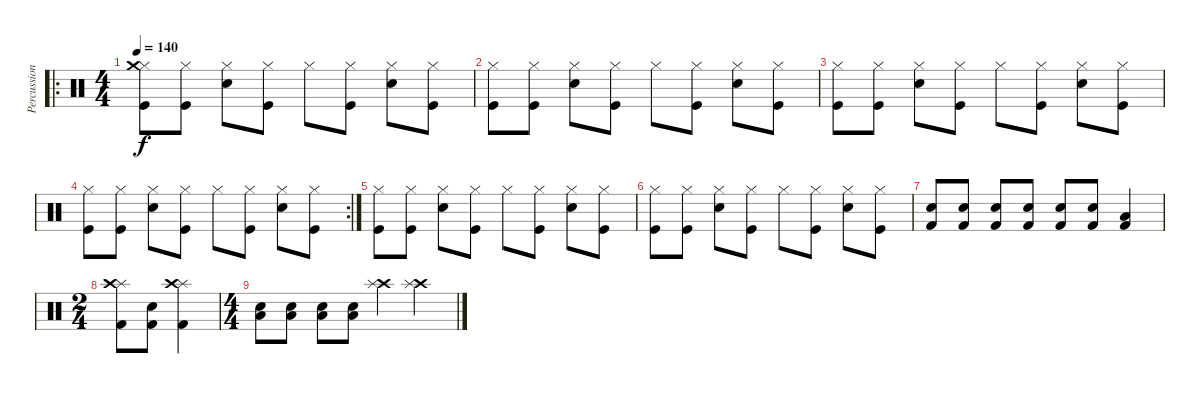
\track ("Percussion" "Percussion") {instrument percussion}
\staff {score}
\articulation defaults
\ro
\ts (4 4)
\tempo 140
\clef neutral
\ks c
("Kick (hit)" "Hi-Hat (closed)" "Crash medium (hit)").8{dy f} ("Kick (hit)" "Hi-Hat (closed)").8 ("Electric Snare (hit)" "Hi-Hat (closed)").8 ("Kick (hit)" "Hi-Hat (closed)").8 "Hi-Hat (closed)".8 ("Kick (hit)" "Hi-Hat (closed)").8 ("Electric Snare (hit)" "Hi-Hat (closed)").8 ("Kick (hit)" "Hi-Hat (closed)").8 |
("Kick (hit)" "Hi-Hat (closed)").8 ("Kick (hit)" "Hi-Hat (closed)").8 ("Electric Snare (hit)" "Hi-Hat (closed)").8 ("Kick (hit)" "Hi-Hat (closed)").8 "Hi-Hat (closed)".8 ("Kick (hit)" "Hi-Hat (closed)").8 ("Electric Snare (hit)" "Hi-Hat (closed)").8 ("Kick (hit)" "Hi-Hat (closed)").8 |
("Kick (hit)" "Hi-Hat (closed)").8 ("Kick (hit)" "Hi-Hat (closed)").8 ("Electric Snare (hit)" "Hi-Hat (closed)").8 ("Kick (hit)" "Hi-Hat (closed)").8 "Hi-Hat (closed)".8 ("Kick (hit)" "Hi-Hat (closed)").8 ("Electric Snare (hit)" "Hi-Hat (closed)").8 ("Kick (hit)" "Hi-Hat (closed)").8 |
\rc 2
("Kick (hit)" "Hi-Hat (closed)").8 ("Kick (hit)" "Hi-Hat (closed)").8 ("Electric Snare (hit)" "Hi-Hat (closed)").8 ("Kick (hit)" "Hi-Hat (closed)").8 "Hi-Hat (closed)".8 ("Kick (hit)" "Hi-Hat (closed)").8 ("Electric Snare (hit)" "Hi-Hat (closed)").8 ("Kick (hit)" "Hi-Hat (closed)").8 |
("Kick (hit)" "Hi-Hat (closed)").8 ("Kick (hit)" "Hi-Hat (closed)").8 ("Electric Snare (hit)" "Hi-Hat (closed)").8 ("Kick (hit)" "Hi-Hat (closed)").8 "Hi-Hat (closed)".8 ("Kick (hit)" "Hi-Hat (closed)").8 ("Electric Snare (hit)" "Hi-Hat (closed)").8 ("Kick (hit)" "Hi-Hat (closed)").8 |
("Kick (hit)" "Hi-Hat (closed)").8 ("Kick (hit)" "Hi-Hat (closed)").8 ("Electric Snare (hit)" "Hi-Hat (closed)").8 ("Kick (hit)" "Hi-Hat (closed)").8 "Hi-Hat (closed)".8 ("Kick (hit)" "Hi-Hat (closed)").8 ("Electric Snare (hit)" "Hi-Hat (closed)").8 ("Kick (hit)" "Hi-Hat (closed)").8 |
("Snare (hit) 2" "Kick (hit) 2").8 ("Snare (hit) 2" "Kick (hit) 2").8 ("Snare (hit) 2" "Kick (hit) 2").8 ("Snare (hit) 2" "Kick (hit) 2").8 ("Snare (hit) 2" "Kick (hit) 2").8 ("Snare (hit) 2" "Kick (hit) 2").8 ("Low Tom (hit)" "Kick (hit) 2").4 |
\ts (2 4)
("Splash (hit)" "Crash high (hit)" "Kick (hit) 2").8 ("Snare (hit) 2" "Kick (hit) 2").8 ("Splash (hit)" "Crash high (hit)" "Kick (hit) 2").4 |
\ts (4 4)
("Snare (hit) 2" "Low Tom (hit)").8 ("Snare (hit) 2" "Low Tom (hit)").8 ("Snare (hit) 2" "Low Tom (hit)").8 ("Snare (hit) 2" "Low Tom (hit)").8 ("Crash high (hit)" "Splash (hit)").4 ("Crash high (hit)" "Splash (hit)").4
